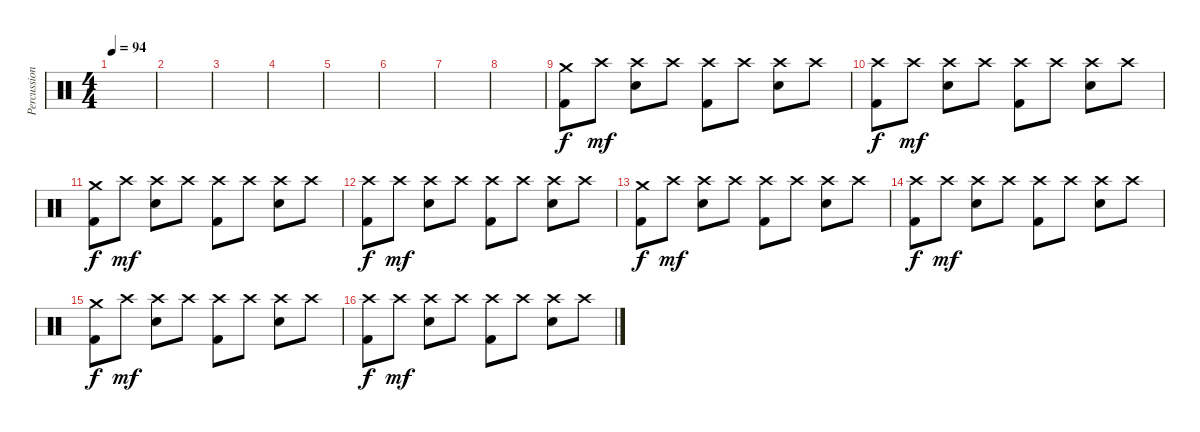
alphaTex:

\track ("Percussion" "Percussion") {instrument percussion}
\staff {score}
\articulation defaults
\ts (4 4)
\tempo 94
\clef neutral
\ks c
|
|
|
|
|
|
|
|
("Crash medium (hit)" "Kick (hit) 2").8{dy f} "Crash high (hit)".8{dy mf} ("Crash high (hit)" "Electric Snare (hit)").8 "Crash high (hit)".8 ("Crash high (hit)" "Kick (hit) 2").8 "Crash high (hit)".8 ("Crash high (hit)" "Electric Snare (hit)").8 "Crash high (hit)".8 |
("Crash high (hit)" "Kick (hit) 2").8{dy f} "Crash high (hit)".8{dy mf} ("Crash high (hit)" "Electric Snare (hit)").8 "Crash high (hit)".8 ("Crash high (hit)" "Kick (hit) 2").8 "Crash high (hit)".8 ("Crash high (hit)" "Electric Snare (hit)").8 "Crash high (hit)".8 |
("Crash medium (hit)" "Kick (hit) 2").8{dy f} "Crash high (hit)".8{dy mf} ("Crash high (hit)" "Electric Snare (hit)").8 "Crash high (hit)".8 ("Crash high (hit)" "Kick (hit) 2").8 "Crash high (hit)".8 ("Crash high (hit)" "Electric Snare (hit)").8 "Crash high (hit)".8 |
("Crash high (hit)" "Kick (hit) 2").8{dy f} "Crash high (hit)".8{dy mf} ("Crash high (hit)" "Electric Snare (hit)").8 "Crash high (hit)".8 ("Crash high (hit)" "Kick (hit) 2").8 "Crash high (hit)".8 ("Crash high (hit)" "Electric Snare (hit)").8 "Crash high (hit)".8 |
("Crash medium (hit)" "Kick (hit) 2").8{dy f} "Crash high (hit)".8{dy mf} ("Crash high (hit)" "Electric Snare (hit)").8 "Crash high (hit)".8 ("Crash high (hit)" "Kick (hit) 2").8 "Crash high (hit)".8 ("Crash high (hit)" "Electric Snare (hit)").8 "Crash high (hit)".8 |
("Crash high (hit)" "Kick (hit) 2").8{dy f} "Crash high (hit)".8{dy mf} ("Crash high (hit)" "Electric Snare (hit)").8 "Crash high (hit)".8 ("Crash high (hit)" "Kick (hit) 2").8 "Crash high (hit)".8 ("Crash high (hit)" "Electric Snare (hit)").8 "Crash high (hit)".8 |
("Crash medium (hit)" "Kick (hit) 2").8{dy f} "Crash high (hit)".8{dy mf} ("Crash high (hit)" "Electric Snare (hit)").8 "Crash high (hit)".8 ("Crash high (hit)" "Kick (hit) 2").8 "Crash high (hit)".8 ("Crash high (hit)" "Electric Snare (hit)").8 "Crash high (hit)".8 |
("Crash high (hit)" "Kick (hit) 2").8{dy f} "Crash high (hit)".8{dy mf} ("Crash high (hit)" "Electric Snare (hit)").8 "Crash high (hit)".8 ("Crash high (hit)" "Kick (hit) 2").8 "Crash high (hit)".8 ("Crash high (hit)" "Electric Snare (hit)").8 "Crash high (hit)".8
